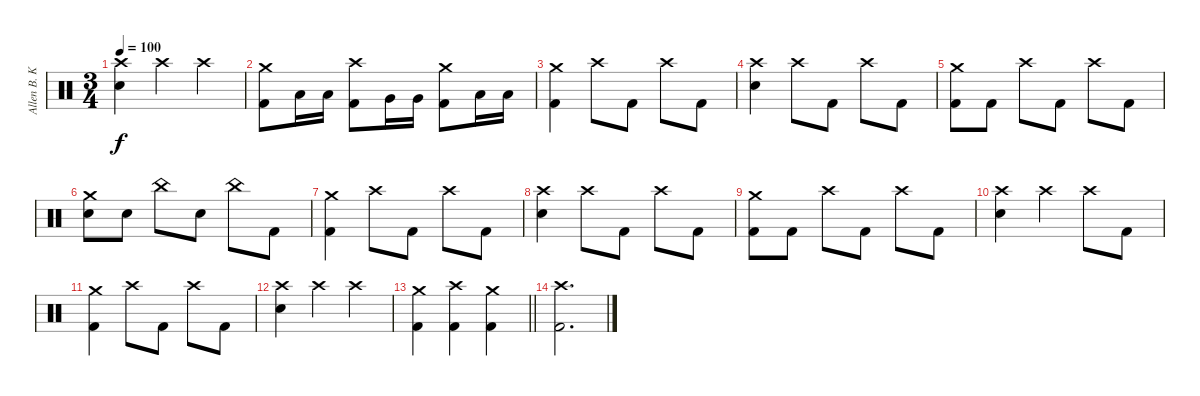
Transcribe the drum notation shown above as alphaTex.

\track ("Allen B. Konstanz (Drums)" "Allen B. K") {instrument percussion}
\staff {score}
\articulation defaults
\ts (3 4)
\tempo 100
\clef neutral
\ks c
("Crash high (hit)" "Snare (hit) 2").4{dy f} "Crash high (hit)".4 "Crash high (hit)".4 |
("Crash medium (hit)" "Kick (hit) 2").8 "Low Tom (hit)".16 "Low Tom (hit)".16 ("Crash high (hit)" "Kick (hit) 2").8 "Very Low Tom (hit)".16 "Very Low Tom (hit)".16 ("Crash medium (hit)" "Kick (hit) 2").8 "Low Floor Tom (hit)".16 "Low Floor Tom (hit)".16 |
("Crash medium (hit)" "Kick (hit) 2").4 "Crash high (hit)".8 "Kick (hit) 2".8 "Crash high (hit)".8 "Kick (hit) 2".8 |
("Crash high (hit)" "Snare (hit) 2").4 "Crash high (hit)".8 "Kick (hit) 2".8 "Crash high (hit)".8 "Kick (hit) 2".8 |
("Crash medium (hit)" "Kick (hit) 2").8 "Kick (hit) 2".8 "Crash high (hit)".8 "Kick (hit) 2".8 "Crash high (hit)".8 "Kick (hit) 2".8 |
("Crash medium (hit)" "Snare (hit) 2").8 "Snare (hit) 2".8 "China (hit)".8 "Snare (hit) 2".8 "China (hit)".8 "Kick (hit) 2".8 |
("Crash medium (hit)" "Kick (hit) 2").4 "Crash high (hit)".8 "Kick (hit) 2".8 "Crash high (hit)".8 "Kick (hit) 2".8 |
("Crash high (hit)" "Snare (hit) 2").4 "Crash high (hit)".8 "Kick (hit) 2".8 "Crash high (hit)".8 "Kick (hit) 2".8 |
("Crash medium (hit)" "Kick (hit) 2").8 "Kick (hit) 2".8 "Crash high (hit)".8 "Kick (hit) 2".8 "Crash high (hit)".8 "Kick (hit) 2".8 |
("Crash high (hit)" "Snare (hit) 2").4 "Crash high (hit)".4 "Crash high (hit)".8 "Kick (hit) 2".8 |
("Crash medium (hit)" "Kick (hit) 2").4 "Crash high (hit)".8 "Kick (hit) 2".8 "Crash high (hit)".8 "Kick (hit) 2".8 |
("Crash high (hit)" "Snare (hit) 2").4 "Crash high (hit)".4 "Crash high (hit)".4 |
\barLineRight lightlight
("Crash medium (hit)" "Kick (hit) 2").4 ("Crash high (hit)" "Kick (hit) 2").4 ("Crash medium (hit)" "Kick (hit) 2").4 |
("Crash high (hit)" "Kick (hit) 2").2{d}
